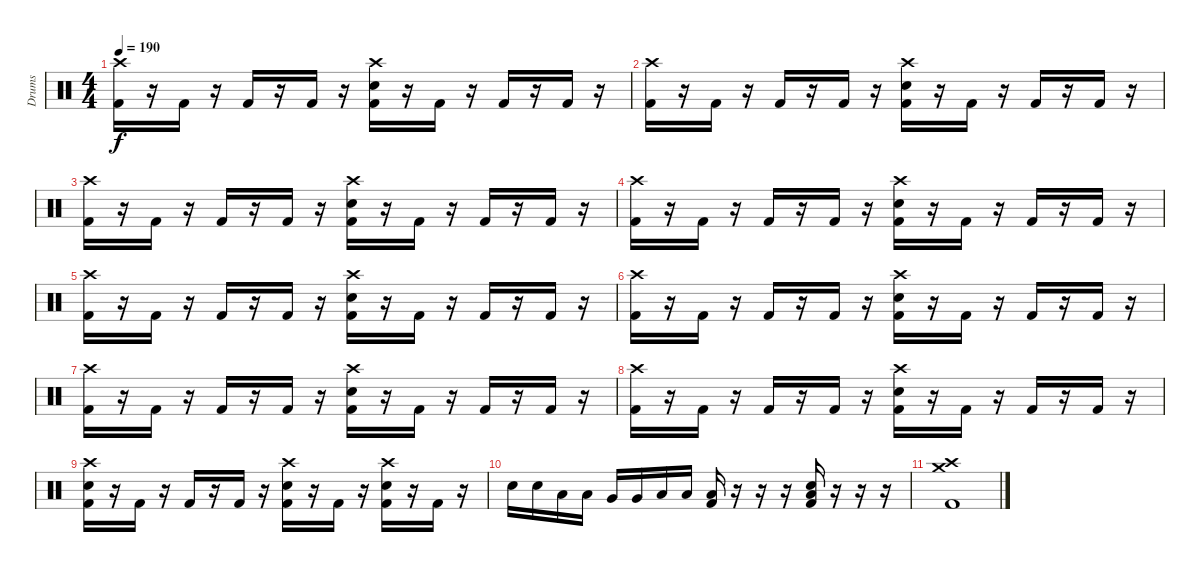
\track ("Drums" "Drums") {instrument percussion}
\staff {score}
\articulation defaults
\ts (4 4)
\tempo 190
\clef neutral
\ks c
("Crash high (hit)" "Kick (hit) 2").16{dy f} r.16 "Kick (hit) 2".16 r.16 "Kick (hit) 2".16 r.16 "Kick (hit) 2".16 r.16 ("Crash high (hit)" "Electric Snare (hit)" "Kick (hit) 2").16 r.16 "Kick (hit) 2".16 r.16 "Kick (hit) 2".16 r.16 "Kick (hit) 2".16 r.16 |
("Crash high (hit)" "Kick (hit) 2").16 r.16 "Kick (hit) 2".16 r.16 "Kick (hit) 2".16 r.16 "Kick (hit) 2".16 r.16 ("Crash high (hit)" "Electric Snare (hit)" "Kick (hit) 2").16 r.16 "Kick (hit) 2".16 r.16 "Kick (hit) 2".16 r.16 "Kick (hit) 2".16 r.16 |
("Crash high (hit)" "Kick (hit) 2").16 r.16 "Kick (hit) 2".16 r.16 "Kick (hit) 2".16 r.16 "Kick (hit) 2".16 r.16 ("Crash high (hit)" "Electric Snare (hit)" "Kick (hit) 2").16 r.16 "Kick (hit) 2".16 r.16 "Kick (hit) 2".16 r.16 "Kick (hit) 2".16 r.16 |
("Crash high (hit)" "Kick (hit) 2").16 r.16 "Kick (hit) 2".16 r.16 "Kick (hit) 2".16 r.16 "Kick (hit) 2".16 r.16 ("Crash high (hit)" "Electric Snare (hit)" "Kick (hit) 2").16 r.16 "Kick (hit) 2".16 r.16 "Kick (hit) 2".16 r.16 "Kick (hit) 2".16 r.16 |
("Crash high (hit)" "Kick (hit) 2").16 r.16 "Kick (hit) 2".16 r.16 "Kick (hit) 2".16 r.16 "Kick (hit) 2".16 r.16 ("Crash high (hit)" "Electric Snare (hit)" "Kick (hit) 2").16 r.16 "Kick (hit) 2".16 r.16 "Kick (hit) 2".16 r.16 "Kick (hit) 2".16 r.16 |
("Crash high (hit)" "Kick (hit) 2").16 r.16 "Kick (hit) 2".16 r.16 "Kick (hit) 2".16 r.16 "Kick (hit) 2".16 r.16 ("Crash high (hit)" "Electric Snare (hit)" "Kick (hit) 2").16 r.16 "Kick (hit) 2".16 r.16 "Kick (hit) 2".16 r.16 "Kick (hit) 2".16 r.16 |
("Crash high (hit)" "Kick (hit) 2").16 r.16 "Kick (hit) 2".16 r.16 "Kick (hit) 2".16 r.16 "Kick (hit) 2".16 r.16 ("Crash high (hit)" "Electric Snare (hit)" "Kick (hit) 2").16 r.16 "Kick (hit) 2".16 r.16 "Kick (hit) 2".16 r.16 "Kick (hit) 2".16 r.16 |
("Crash high (hit)" "Kick (hit) 2").16 r.16 "Kick (hit) 2".16 r.16 "Kick (hit) 2".16 r.16 "Kick (hit) 2".16 r.16 ("Crash high (hit)" "Electric Snare (hit)" "Kick (hit) 2").16 r.16 "Kick (hit) 2".16 r.16 "Kick (hit) 2".16 r.16 "Kick (hit) 2".16 r.16 |
("Crash high (hit)" "Electric Snare (hit)" "Kick (hit) 2").16 r.16 "Kick (hit) 2".16 r.16 "Kick (hit) 2".16 r.16 "Kick (hit) 2".16 r.16 ("Crash high (hit)" "Electric Snare (hit)" "Kick (hit) 2").16 r.16 "Kick (hit) 2".16 r.16 ("Crash high (hit)" "Electric Snare (hit)" "Kick (hit) 2").16 r.16 "Kick (hit) 2".16 r.16 |
"Electric Snare (hit)".16 "Electric Snare (hit)".16 "Low Tom (hit)".16 "Low Tom (hit)".16 "Very Low Tom (hit)".16 "Very Low Tom (hit)".16 "Low Floor Tom (hit)".16 "Low Floor Tom (hit)".16 ("Low Floor Tom (hit)" "Kick (hit) 2").16 r.16 r.16 r.16 ("Electric Snare (hit)" "Low Floor Tom (hit)" "Kick (hit) 2").16 r.16 r.16 r.16 |
("Crash medium (hit)" "Crash high (hit)" "Kick (hit) 2").1
